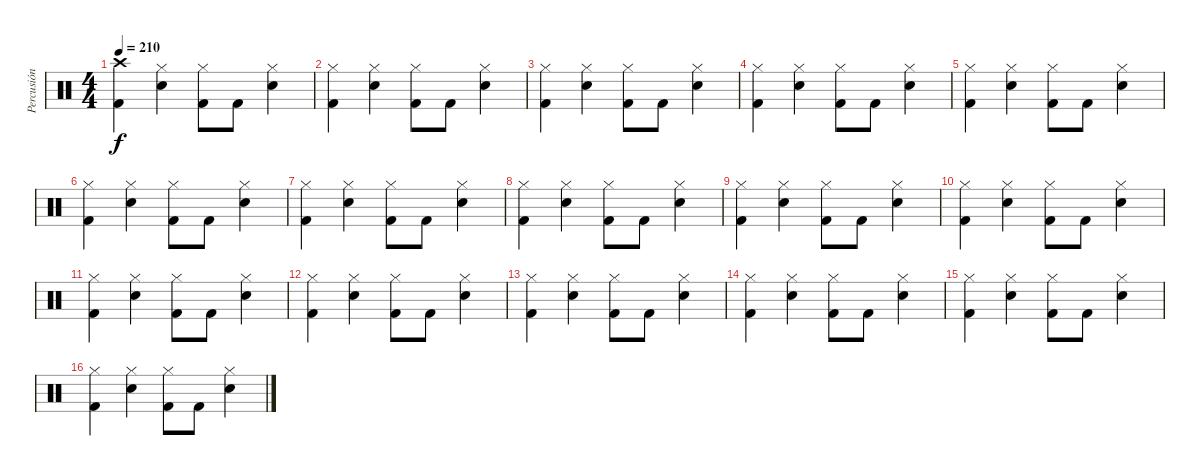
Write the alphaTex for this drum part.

\track ("Percusión" "Percusión") {instrument percussion}
\staff {score}
\articulation defaults
\ts (4 4)
\tempo 210
\clef neutral
\ks c
("Crash high (hit)" "Kick (hit) 2").4{dy f} ("Hi-Hat (closed)" "Electric Snare (hit)").4 ("Hi-Hat (closed)" "Kick (hit) 2").8 "Kick (hit) 2".8 ("Hi-Hat (closed)" "Electric Snare (hit)").4 |
("Hi-Hat (closed)" "Kick (hit) 2").4 ("Hi-Hat (closed)" "Electric Snare (hit)").4 ("Hi-Hat (closed)" "Kick (hit) 2").8 "Kick (hit) 2".8 ("Hi-Hat (closed)" "Electric Snare (hit)").4 |
("Hi-Hat (closed)" "Kick (hit) 2").4 ("Hi-Hat (closed)" "Electric Snare (hit)").4 ("Hi-Hat (closed)" "Kick (hit) 2").8 "Kick (hit) 2".8 ("Hi-Hat (closed)" "Electric Snare (hit)").4 |
("Hi-Hat (closed)" "Kick (hit) 2").4 ("Hi-Hat (closed)" "Electric Snare (hit)").4 ("Hi-Hat (closed)" "Kick (hit) 2").8 "Kick (hit) 2".8 ("Hi-Hat (closed)" "Electric Snare (hit)").4 |
("Hi-Hat (closed)" "Kick (hit) 2").4 ("Hi-Hat (closed)" "Electric Snare (hit)").4 ("Hi-Hat (closed)" "Kick (hit) 2").8 "Kick (hit) 2".8 ("Hi-Hat (closed)" "Electric Snare (hit)").4 |
("Hi-Hat (closed)" "Kick (hit) 2").4 ("Hi-Hat (closed)" "Electric Snare (hit)").4 ("Hi-Hat (closed)" "Kick (hit) 2").8 "Kick (hit) 2".8 ("Hi-Hat (closed)" "Electric Snare (hit)").4 |
("Hi-Hat (closed)" "Kick (hit) 2").4 ("Hi-Hat (closed)" "Electric Snare (hit)").4 ("Hi-Hat (closed)" "Kick (hit) 2").8 "Kick (hit) 2".8 ("Hi-Hat (closed)" "Electric Snare (hit)").4 |
("Hi-Hat (closed)" "Kick (hit) 2").4 ("Hi-Hat (closed)" "Electric Snare (hit)").4 ("Hi-Hat (closed)" "Kick (hit) 2").8 "Kick (hit) 2".8 ("Hi-Hat (closed)" "Electric Snare (hit)").4 |
("Hi-Hat (closed)" "Kick (hit) 2").4 ("Hi-Hat (closed)" "Electric Snare (hit)").4 ("Hi-Hat (closed)" "Kick (hit) 2").8 "Kick (hit) 2".8 ("Hi-Hat (closed)" "Electric Snare (hit)").4 |
("Hi-Hat (closed)" "Kick (hit) 2").4 ("Hi-Hat (closed)" "Electric Snare (hit)").4 ("Hi-Hat (closed)" "Kick (hit) 2").8 "Kick (hit) 2".8 ("Hi-Hat (closed)" "Electric Snare (hit)").4 |
("Hi-Hat (closed)" "Kick (hit) 2").4 ("Hi-Hat (closed)" "Electric Snare (hit)").4 ("Hi-Hat (closed)" "Kick (hit) 2").8 "Kick (hit) 2".8 ("Hi-Hat (closed)" "Electric Snare (hit)").4 |
("Hi-Hat (closed)" "Kick (hit) 2").4 ("Hi-Hat (closed)" "Electric Snare (hit)").4 ("Hi-Hat (closed)" "Kick (hit) 2").8 "Kick (hit) 2".8 ("Hi-Hat (closed)" "Electric Snare (hit)").4 |
("Hi-Hat (closed)" "Kick (hit) 2").4 ("Hi-Hat (closed)" "Electric Snare (hit)").4 ("Hi-Hat (closed)" "Kick (hit) 2").8 "Kick (hit) 2".8 ("Hi-Hat (closed)" "Electric Snare (hit)").4 |
("Hi-Hat (closed)" "Kick (hit) 2").4 ("Hi-Hat (closed)" "Electric Snare (hit)").4 ("Hi-Hat (closed)" "Kick (hit) 2").8 "Kick (hit) 2".8 ("Hi-Hat (closed)" "Electric Snare (hit)").4 |
("Hi-Hat (closed)" "Kick (hit) 2").4 ("Hi-Hat (closed)" "Electric Snare (hit)").4 ("Hi-Hat (closed)" "Kick (hit) 2").8 "Kick (hit) 2".8 ("Hi-Hat (closed)" "Electric Snare (hit)").4 |
("Hi-Hat (closed)" "Kick (hit) 2").4 ("Hi-Hat (closed)" "Electric Snare (hit)").4 ("Hi-Hat (closed)" "Kick (hit) 2").8 "Kick (hit) 2".8 ("Hi-Hat (closed)" "Electric Snare (hit)").4
